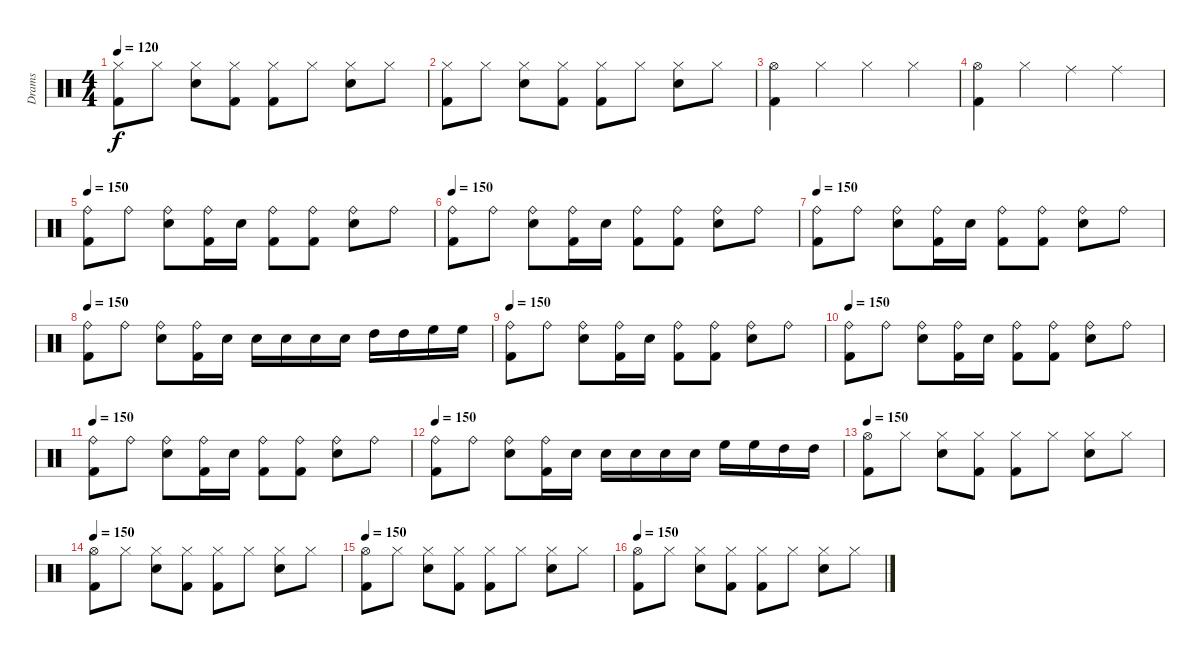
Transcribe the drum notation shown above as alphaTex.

\track ("Drams" "Drams") {instrument percussion}
\staff {score}
\articulation defaults
\ts (4 4)
\tempo 120
\clef neutral
\ks aminor
("Hi-Hat (closed)" "Kick (hit) 2").8{dy f} "Hi-Hat (closed)".8 ("Hi-Hat (closed)" "Electric Snare (hit)").8 ("Hi-Hat (closed)" "Kick (hit) 2").8 ("Hi-Hat (closed)" "Kick (hit) 2").8 "Hi-Hat (closed)".8 ("Hi-Hat (closed)" "Electric Snare (hit)").8 "Hi-Hat (closed)".8 |
("Hi-Hat (closed)" "Kick (hit) 2").8 "Hi-Hat (closed)".8 ("Hi-Hat (closed)" "Electric Snare (hit)").8 ("Hi-Hat (closed)" "Kick (hit) 2").8 ("Hi-Hat (closed)" "Kick (hit) 2").8 "Hi-Hat (closed)".8 ("Hi-Hat (closed)" "Electric Snare (hit)").8 "Hi-Hat (closed)".8 |
("Kick (hit) 2" "Hi-Hat (open)").4 "Hi-Hat (closed)".4 "Hi-Hat (closed)".4 "Hi-Hat (closed)".4 |
("Hi-Hat (open)" "Kick (hit) 2").4 "Hi-Hat (closed)".4 "Ride (middle)".4 "Ride (middle)".4 |
\tempo 150
("Kick (hit) 2" "Ride (bell)").8 "Ride (bell)".8 ("Electric Snare (hit)" "Ride (bell)").8 ("Kick (hit) 2" "Ride (bell)").16 "Electric Snare (hit)".16 ("Kick (hit) 2" "Ride (bell)").8 ("Kick (hit) 2" "Ride (bell)").8 ("Electric Snare (hit)" "Ride (bell)").8 "Ride (bell)".8 |
\tempo 150
("Kick (hit) 2" "Ride (bell)").8 "Ride (bell)".8 ("Electric Snare (hit)" "Ride (bell)").8 ("Kick (hit) 2" "Ride (bell)").16 "Electric Snare (hit)".16 ("Kick (hit) 2" "Ride (bell)").8 ("Kick (hit) 2" "Ride (bell)").8 ("Electric Snare (hit)" "Ride (bell)").8 "Ride (bell)".8 |
\tempo 150
("Kick (hit) 2" "Ride (bell)").8 "Ride (bell)".8 ("Electric Snare (hit)" "Ride (bell)").8 ("Kick (hit) 2" "Ride (bell)").16 "Electric Snare (hit)".16 ("Kick (hit) 2" "Ride (bell)").8 ("Kick (hit) 2" "Ride (bell)").8 ("Electric Snare (hit)" "Ride (bell)").8 "Ride (bell)".8 |
\tempo 150
("Kick (hit) 2" "Ride (bell)").8 "Ride (bell)".8 ("Electric Snare (hit)" "Ride (bell)").8 ("Kick (hit) 2" "Ride (bell)").16 "Electric Snare (hit)".16 "Electric Snare (hit)".16 "Electric Snare (hit)".16 "Electric Snare (hit)".16 "Electric Snare (hit)".16 "High Tom (hit)".16 "High Tom (hit)".16 "High Floor Tom (hit)".16 "High Floor Tom (hit)".16 |
\tempo 150
("Kick (hit) 2" "Ride (bell)").8 "Ride (bell)".8 ("Electric Snare (hit)" "Ride (bell)").8 ("Kick (hit) 2" "Ride (bell)").16 "Electric Snare (hit)".16 ("Kick (hit) 2" "Ride (bell)").8 ("Kick (hit) 2" "Ride (bell)").8 ("Electric Snare (hit)" "Ride (bell)").8 "Ride (bell)".8 |
\tempo 150
("Kick (hit) 2" "Ride (bell)").8 "Ride (bell)".8 ("Electric Snare (hit)" "Ride (bell)").8 ("Kick (hit) 2" "Ride (bell)").16 "Electric Snare (hit)".16 ("Kick (hit) 2" "Ride (bell)").8 ("Kick (hit) 2" "Ride (bell)").8 ("Electric Snare (hit)" "Ride (bell)").8 "Ride (bell)".8 |
\tempo 150
("Kick (hit) 2" "Ride (bell)").8 "Ride (bell)".8 ("Electric Snare (hit)" "Ride (bell)").8 ("Kick (hit) 2" "Ride (bell)").16 "Electric Snare (hit)".16 ("Kick (hit) 2" "Ride (bell)").8 ("Kick (hit) 2" "Ride (bell)").8 ("Electric Snare (hit)" "Ride (bell)").8 "Ride (bell)".8 |
\tempo 150
("Kick (hit) 2" "Ride (bell)").8 "Ride (bell)".8 ("Electric Snare (hit)" "Ride (bell)").8 ("Kick (hit) 2" "Ride (bell)").16 "Electric Snare (hit)".16 "Electric Snare (hit)".16 "Electric Snare (hit)".16 "Electric Snare (hit)".16 "Electric Snare (hit)".16 "High Floor Tom (hit)".16 "High Floor Tom (hit)".16 "High Tom (hit)".16 "High Tom (hit)".16 |
\tempo 150
("Kick (hit) 2" "Hi-Hat (open)").8 "Hi-Hat (closed)".8 ("Hi-Hat (closed)" "Electric Snare (hit)").8 ("Hi-Hat (closed)" "Kick (hit) 2").8 ("Kick (hit) 2" "Hi-Hat (closed)").8 "Hi-Hat (closed)".8 ("Hi-Hat (closed)" "Electric Snare (hit)").8 "Hi-Hat (closed)".8 |
\tempo 150
("Hi-Hat (open)" "Kick (hit) 2").8 "Hi-Hat (closed)".8 ("Hi-Hat (closed)" "Electric Snare (hit)").8 ("Hi-Hat (closed)" "Kick (hit) 2").8 ("Kick (hit) 2" "Hi-Hat (closed)").8 "Hi-Hat (closed)".8 ("Hi-Hat (closed)" "Electric Snare (hit)").8 "Hi-Hat (closed)".8 |
\tempo 150
("Kick (hit) 2" "Hi-Hat (open)").8 "Hi-Hat (closed)".8 ("Hi-Hat (closed)" "Electric Snare (hit)").8 ("Hi-Hat (closed)" "Kick (hit) 2").8 ("Kick (hit) 2" "Hi-Hat (closed)").8 "Hi-Hat (closed)".8 ("Hi-Hat (closed)" "Electric Snare (hit)").8 "Hi-Hat (closed)".8 |
\tempo 150
("Hi-Hat (open)" "Kick (hit) 2").8 "Hi-Hat (closed)".8 ("Hi-Hat (closed)" "Electric Snare (hit)").8 ("Hi-Hat (closed)" "Kick (hit) 2").8 ("Kick (hit) 2" "Hi-Hat (closed)").8 "Hi-Hat (closed)".8 ("Hi-Hat (closed)" "Electric Snare (hit)").8 "Hi-Hat (closed)".8
